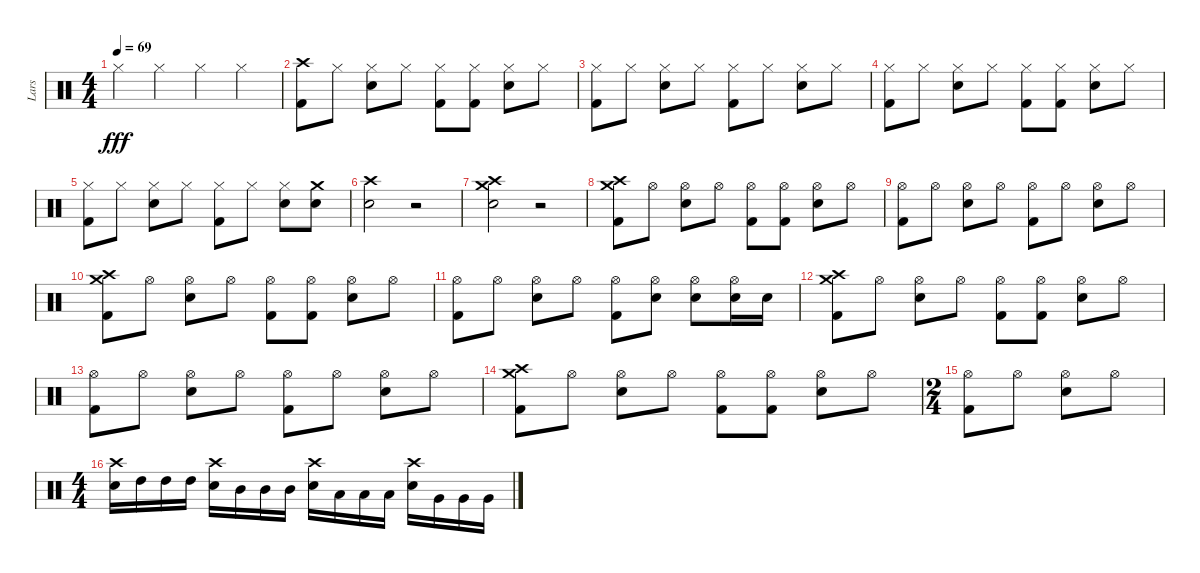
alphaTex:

\track ("Lars" "Lars") {instrument percussion}
\staff {score}
\articulation defaults
\ts (4 4)
\tempo 69
\clef neutral
\ks c "Hi-Hat (closed)".4{dy fff} "Hi-Hat (closed)".4 "Hi-Hat (closed)".4 "Hi-Hat (closed)".4
|
("Crash high (hit)" "Kick (hit) 2").8 "Hi-Hat (closed)".8 ("Hi-Hat (closed)" "Electric Snare (hit)").8 "Hi-Hat (closed)".8 ("Hi-Hat (closed)" "Kick (hit) 2").8 ("Hi-Hat (closed)" "Kick (hit) 2").8 ("Hi-Hat (closed)" "Electric Snare (hit)").8 "Hi-Hat (closed)".8 |
("Hi-Hat (closed)" "Kick (hit) 2").8 "Hi-Hat (closed)".8 ("Hi-Hat (closed)" "Electric Snare (hit)").8 "Hi-Hat (closed)".8 ("Hi-Hat (closed)" "Kick (hit) 2").8 "Hi-Hat (closed)".8 ("Hi-Hat (closed)" "Electric Snare (hit)").8 "Hi-Hat (closed)".8 |
("Hi-Hat (closed)" "Kick (hit) 2").8 "Hi-Hat (closed)".8 ("Hi-Hat (closed)" "Electric Snare (hit)").8 "Hi-Hat (closed)".8 ("Hi-Hat (closed)" "Kick (hit) 2").8 ("Hi-Hat (closed)" "Kick (hit) 2").8 ("Hi-Hat (closed)" "Electric Snare (hit)").8 "Hi-Hat (closed)".8 |
("Hi-Hat (closed)" "Kick (hit) 2").8 "Hi-Hat (closed)".8 ("Hi-Hat (closed)" "Electric Snare (hit)").8 "Hi-Hat (closed)".8 ("Hi-Hat (closed)" "Kick (hit) 2").8 "Hi-Hat (closed)".8 ("Hi-Hat (closed)" "Electric Snare (hit)").8 ("Crash medium (hit)" "Electric Snare (hit)").8 |
("Crash high (hit)" "Electric Snare (hit)").2 r.2 |
("Crash high (hit)" "Crash medium (hit)" "Electric Snare (hit)").2 r.2 |
("Crash high (hit)" "Crash medium (hit)" "Kick (hit) 2").8 "Hi-Hat (open)".8 ("Hi-Hat (open)" "Electric Snare (hit)").8 "Hi-Hat (open)".8 ("Hi-Hat (open)" "Kick (hit) 2").8 ("Hi-Hat (open)" "Kick (hit) 2").8 ("Hi-Hat (open)" "Electric Snare (hit)").8 "Hi-Hat (open)".8 |
("Hi-Hat (open)" "Kick (hit) 2").8 "Hi-Hat (open)".8 ("Hi-Hat (open)" "Electric Snare (hit)").8 "Hi-Hat (open)".8 ("Hi-Hat (open)" "Kick (hit) 2").8 "Hi-Hat (open)".8 ("Hi-Hat (open)" "Electric Snare (hit)").8 "Hi-Hat (open)".8 |
("Crash high (hit)" "Crash medium (hit)" "Kick (hit) 2").8 "Hi-Hat (open)".8 ("Hi-Hat (open)" "Electric Snare (hit)").8 "Hi-Hat (open)".8 ("Hi-Hat (open)" "Kick (hit) 2").8 ("Hi-Hat (open)" "Kick (hit) 2").8 ("Hi-Hat (open)" "Electric Snare (hit)").8 "Hi-Hat (open)".8 |
("Hi-Hat (open)" "Kick (hit) 2").8 "Hi-Hat (open)".8 ("Hi-Hat (open)" "Electric Snare (hit)").8 "Hi-Hat (open)".8 ("Hi-Hat (open)" "Kick (hit) 2").8 ("Hi-Hat (open)" "Electric Snare (hit)").8 ("Hi-Hat (open)" "Electric Snare (hit)").8 ("Hi-Hat (open)" "Electric Snare (hit)").16 "Electric Snare (hit)".16 |
("Crash high (hit)" "Crash medium (hit)" "Kick (hit) 2").8 "Hi-Hat (open)".8 ("Hi-Hat (open)" "Electric Snare (hit)").8 "Hi-Hat (open)".8 ("Hi-Hat (open)" "Kick (hit) 2").8 ("Hi-Hat (open)" "Kick (hit) 2").8 ("Hi-Hat (open)" "Electric Snare (hit)").8 "Hi-Hat (open)".8 |
("Hi-Hat (open)" "Kick (hit) 2").8 "Hi-Hat (open)".8 ("Hi-Hat (open)" "Electric Snare (hit)").8 "Hi-Hat (open)".8 ("Hi-Hat (open)" "Kick (hit) 2").8 "Hi-Hat (open)".8 ("Hi-Hat (open)" "Electric Snare (hit)").8 "Hi-Hat (open)".8 |
("Crash high (hit)" "Crash medium (hit)" "Kick (hit) 2").8 "Hi-Hat (open)".8 ("Hi-Hat (open)" "Electric Snare (hit)").8 "Hi-Hat (open)".8 ("Hi-Hat (open)" "Kick (hit) 2").8 ("Hi-Hat (open)" "Kick (hit) 2").8 ("Hi-Hat (open)" "Electric Snare (hit)").8 "Hi-Hat (open)".8 |
\ts (2 4)
("Hi-Hat (open)" "Kick (hit) 2").8 "Hi-Hat (open)".8 ("Hi-Hat (open)" "Electric Snare (hit)").8 "Hi-Hat (open)".8 |
\ts (4 4)
("Crash high (hit)" "Electric Snare (hit)").16 "High Tom (hit)".16 "High Tom (hit)".16 "High Tom (hit)".16 ("Crash high (hit)" "Electric Snare (hit)").16 "Mid Tom (hit)".16 "Mid Tom (hit)".16 "Mid Tom (hit)".16 ("Crash high (hit)" "Electric Snare (hit)").16 "Low Tom (hit)".16 "Low Tom (hit)".16 "Low Tom (hit)".16 ("Crash high (hit)" "Electric Snare (hit)").16 "Very Low Tom (hit)".16 "Very Low Tom (hit)".16 "Very Low Tom (hit)".16
